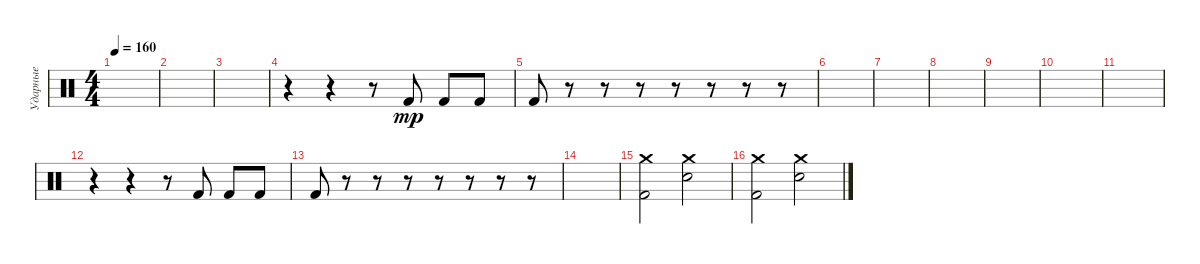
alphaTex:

\track ("Ударные" "Ударные") {instrument percussion}
\staff {score}
\articulation defaults
\ts (4 4)
\tempo 160
\clef neutral
\ks c
|
|
|
r.4 r.4 r.8 "Kick (hit) 2".8{dy mp} "Kick (hit) 2".8 "Kick (hit) 2".8 |
"Kick (hit) 2".8 r.8 r.8 r.8 r.8 r.8 r.8 r.8 |
|
|
|
|
|
|
r.4 r.4 r.8 "Kick (hit) 2".8 "Kick (hit) 2".8 "Kick (hit) 2".8 |
"Kick (hit) 2".8 r.8 r.8 r.8 r.8 r.8 r.8 r.8 |
|
("Kick (hit) 2" "Crash medium (hit)").2 ("Electric Snare (hit)" "Crash medium (hit)").2 |
("Kick (hit) 2" "Crash medium (hit)").2 ("Electric Snare (hit)" "Crash medium (hit)").2
